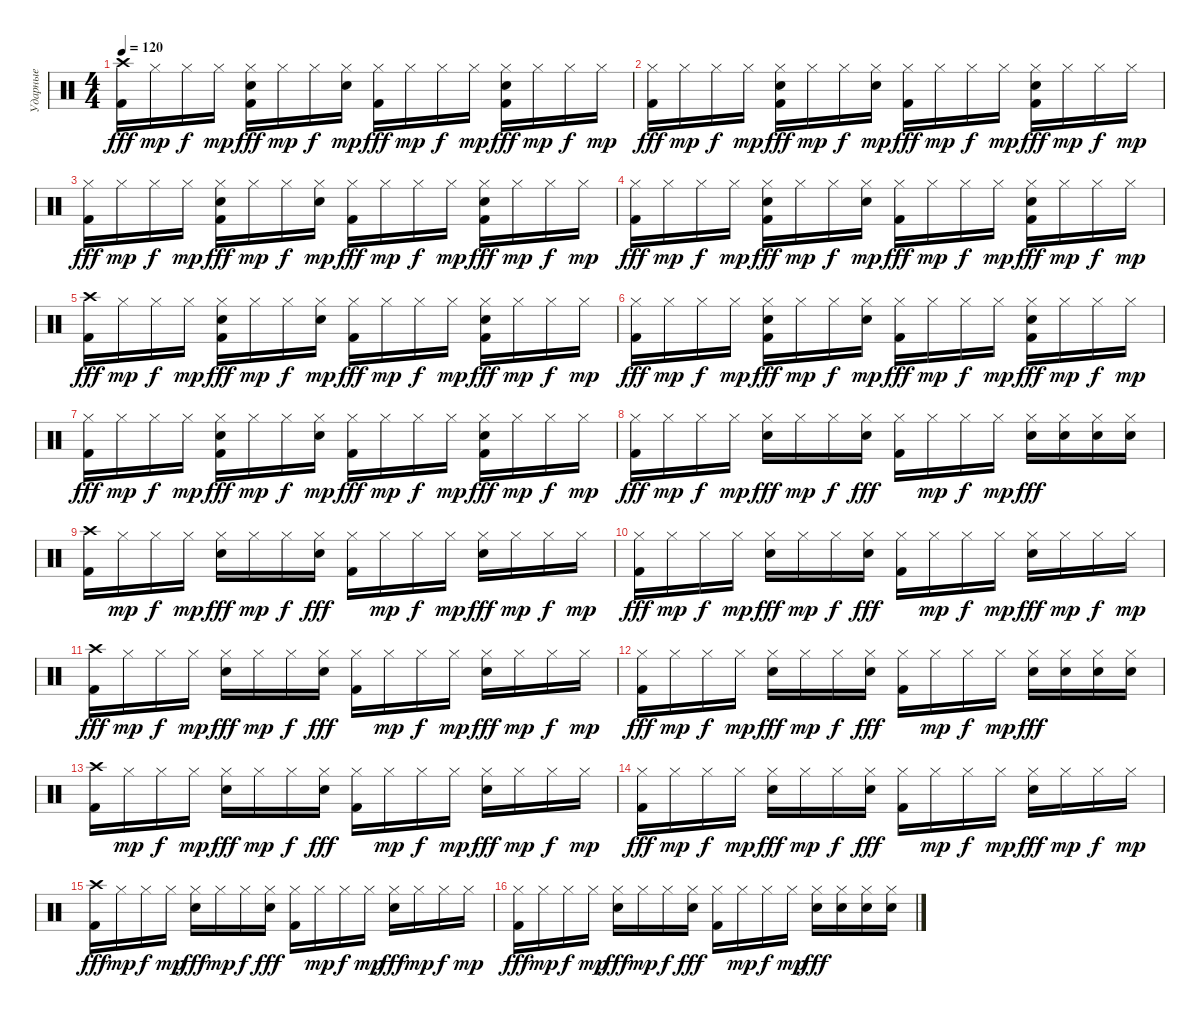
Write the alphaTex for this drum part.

\track ("Ударные" "Ударные") {instrument percussion}
\staff {score}
\articulation defaults
\ts (4 4)
\tempo 120
\clef neutral
\ks c
("Crash high (hit)" "Kick (hit) 2").16{dy fff} "Hi-Hat (closed)".16{dy mp} "Hi-Hat (closed)".16{dy f} "Hi-Hat (closed)".16{dy mp} ("Hi-Hat (closed)" "Snare (hit) 2" "Kick (hit) 2").16{dy fff} "Hi-Hat (closed)".16{dy mp} "Hi-Hat (closed)".16{dy f} ("Hi-Hat (closed)" "Snare (hit) 2").16{dy mp} ("Hi-Hat (closed)" "Kick (hit) 2").16{dy fff} "Hi-Hat (closed)".16{dy mp} "Hi-Hat (closed)".16{dy f} "Hi-Hat (closed)".16{dy mp} ("Hi-Hat (closed)" "Snare (hit) 2" "Kick (hit) 2").16{dy fff} "Hi-Hat (closed)".16{dy mp} "Hi-Hat (closed)".16{dy f} "Hi-Hat (closed)".16{dy mp} |
("Hi-Hat (closed)" "Kick (hit) 2").16{dy fff} "Hi-Hat (closed)".16{dy mp} "Hi-Hat (closed)".16{dy f} "Hi-Hat (closed)".16{dy mp} ("Hi-Hat (closed)" "Snare (hit) 2" "Kick (hit) 2").16{dy fff} "Hi-Hat (closed)".16{dy mp} "Hi-Hat (closed)".16{dy f} ("Hi-Hat (closed)" "Snare (hit) 2").16{dy mp} ("Hi-Hat (closed)" "Kick (hit) 2").16{dy fff} "Hi-Hat (closed)".16{dy mp} "Hi-Hat (closed)".16{dy f} "Hi-Hat (closed)".16{dy mp} ("Hi-Hat (closed)" "Snare (hit) 2" "Kick (hit) 2").16{dy fff} "Hi-Hat (closed)".16{dy mp} "Hi-Hat (closed)".16{dy f} "Hi-Hat (closed)".16{dy mp} |
("Hi-Hat (closed)" "Kick (hit) 2").16{dy fff} "Hi-Hat (closed)".16{dy mp} "Hi-Hat (closed)".16{dy f} "Hi-Hat (closed)".16{dy mp} ("Hi-Hat (closed)" "Snare (hit) 2" "Kick (hit) 2").16{dy fff} "Hi-Hat (closed)".16{dy mp} "Hi-Hat (closed)".16{dy f} ("Hi-Hat (closed)" "Snare (hit) 2").16{dy mp} ("Hi-Hat (closed)" "Kick (hit) 2").16{dy fff} "Hi-Hat (closed)".16{dy mp} "Hi-Hat (closed)".16{dy f} "Hi-Hat (closed)".16{dy mp} ("Hi-Hat (closed)" "Snare (hit) 2" "Kick (hit) 2").16{dy fff} "Hi-Hat (closed)".16{dy mp} "Hi-Hat (closed)".16{dy f} "Hi-Hat (closed)".16{dy mp} |
("Hi-Hat (closed)" "Kick (hit) 2").16{dy fff} "Hi-Hat (closed)".16{dy mp} "Hi-Hat (closed)".16{dy f} "Hi-Hat (closed)".16{dy mp} ("Hi-Hat (closed)" "Snare (hit) 2" "Kick (hit) 2").16{dy fff} "Hi-Hat (closed)".16{dy mp} "Hi-Hat (closed)".16{dy f} ("Hi-Hat (closed)" "Snare (hit) 2").16{dy mp} ("Hi-Hat (closed)" "Kick (hit) 2").16{dy fff} "Hi-Hat (closed)".16{dy mp} "Hi-Hat (closed)".16{dy f} "Hi-Hat (closed)".16{dy mp} ("Hi-Hat (closed)" "Snare (hit) 2" "Kick (hit) 2").16{dy fff} "Hi-Hat (closed)".16{dy mp} "Hi-Hat (closed)".16{dy f} "Hi-Hat (closed)".16{dy mp} |
("Crash high (hit)" "Kick (hit) 2").16{dy fff} "Hi-Hat (closed)".16{dy mp} "Hi-Hat (closed)".16{dy f} "Hi-Hat (closed)".16{dy mp} ("Hi-Hat (closed)" "Snare (hit) 2" "Kick (hit) 2").16{dy fff} "Hi-Hat (closed)".16{dy mp} "Hi-Hat (closed)".16{dy f} ("Hi-Hat (closed)" "Snare (hit) 2").16{dy mp} ("Hi-Hat (closed)" "Kick (hit) 2").16{dy fff} "Hi-Hat (closed)".16{dy mp} "Hi-Hat (closed)".16{dy f} "Hi-Hat (closed)".16{dy mp} ("Hi-Hat (closed)" "Snare (hit) 2" "Kick (hit) 2").16{dy fff} "Hi-Hat (closed)".16{dy mp} "Hi-Hat (closed)".16{dy f} "Hi-Hat (closed)".16{dy mp} |
("Hi-Hat (closed)" "Kick (hit) 2").16{dy fff} "Hi-Hat (closed)".16{dy mp} "Hi-Hat (closed)".16{dy f} "Hi-Hat (closed)".16{dy mp} ("Hi-Hat (closed)" "Snare (hit) 2" "Kick (hit) 2").16{dy fff} "Hi-Hat (closed)".16{dy mp} "Hi-Hat (closed)".16{dy f} ("Hi-Hat (closed)" "Snare (hit) 2").16{dy mp} ("Hi-Hat (closed)" "Kick (hit) 2").16{dy fff} "Hi-Hat (closed)".16{dy mp} "Hi-Hat (closed)".16{dy f} "Hi-Hat (closed)".16{dy mp} ("Hi-Hat (closed)" "Snare (hit) 2" "Kick (hit) 2").16{dy fff} "Hi-Hat (closed)".16{dy mp} "Hi-Hat (closed)".16{dy f} "Hi-Hat (closed)".16{dy mp} |
("Hi-Hat (closed)" "Kick (hit) 2").16{dy fff} "Hi-Hat (closed)".16{dy mp} "Hi-Hat (closed)".16{dy f} "Hi-Hat (closed)".16{dy mp} ("Hi-Hat (closed)" "Snare (hit) 2" "Kick (hit) 2").16{dy fff} "Hi-Hat (closed)".16{dy mp} "Hi-Hat (closed)".16{dy f} ("Hi-Hat (closed)" "Snare (hit) 2").16{dy mp} ("Hi-Hat (closed)" "Kick (hit) 2").16{dy fff} "Hi-Hat (closed)".16{dy mp} "Hi-Hat (closed)".16{dy f} "Hi-Hat (closed)".16{dy mp} ("Hi-Hat (closed)" "Snare (hit) 2" "Kick (hit) 2").16{dy fff} "Hi-Hat (closed)".16{dy mp} "Hi-Hat (closed)".16{dy f} "Hi-Hat (closed)".16{dy mp} |
("Hi-Hat (closed)" "Kick (hit) 2").16{dy fff} "Hi-Hat (closed)".16{dy mp} "Hi-Hat (closed)".16{dy f} "Hi-Hat (closed)".16{dy mp} ("Hi-Hat (closed)" "Electric Snare (hit)").16{dy fff} "Hi-Hat (closed)".16{dy mp} "Hi-Hat (closed)".16{dy f} ("Hi-Hat (closed)" "Electric Snare (hit)").16{dy fff} ("Hi-Hat (closed)" "Kick (hit) 2").16 "Hi-Hat (closed)".16{dy mp} "Hi-Hat (closed)".16{dy f} "Hi-Hat (closed)".16{dy mp} ("Hi-Hat (closed)" "Electric Snare (hit)").16{dy fff} ("Hi-Hat (closed)" "Electric Snare (hit)").16 ("Hi-Hat (closed)" "Electric Snare (hit)").16 ("Hi-Hat (closed)" "Electric Snare (hit)").16 |
("Crash high (hit)" "Kick (hit) 2").16 "Hi-Hat (closed)".16{dy mp} "Hi-Hat (closed)".16{dy f} "Hi-Hat (closed)".16{dy mp} ("Hi-Hat (closed)" "Electric Snare (hit)").16{dy fff} "Hi-Hat (closed)".16{dy mp} "Hi-Hat (closed)".16{dy f} ("Hi-Hat (closed)" "Electric Snare (hit)").16{dy fff} ("Hi-Hat (closed)" "Kick (hit) 2").16 "Hi-Hat (closed)".16{dy mp} "Hi-Hat (closed)".16{dy f} "Hi-Hat (closed)".16{dy mp} ("Hi-Hat (closed)" "Electric Snare (hit)").16{dy fff} "Hi-Hat (closed)".16{dy mp} "Hi-Hat (closed)".16{dy f} "Hi-Hat (closed)".16{dy mp} |
("Hi-Hat (closed)" "Kick (hit) 2").16{dy fff} "Hi-Hat (closed)".16{dy mp} "Hi-Hat (closed)".16{dy f} "Hi-Hat (closed)".16{dy mp} ("Hi-Hat (closed)" "Electric Snare (hit)").16{dy fff} "Hi-Hat (closed)".16{dy mp} "Hi-Hat (closed)".16{dy f} ("Hi-Hat (closed)" "Electric Snare (hit)").16{dy fff} ("Hi-Hat (closed)" "Kick (hit) 2").16 "Hi-Hat (closed)".16{dy mp} "Hi-Hat (closed)".16{dy f} "Hi-Hat (closed)".16{dy mp} ("Hi-Hat (closed)" "Electric Snare (hit)").16{dy fff} "Hi-Hat (closed)".16{dy mp} "Hi-Hat (closed)".16{dy f} "Hi-Hat (closed)".16{dy mp} |
("Crash high (hit)" "Kick (hit) 2").16{dy fff} "Hi-Hat (closed)".16{dy mp} "Hi-Hat (closed)".16{dy f} "Hi-Hat (closed)".16{dy mp} ("Hi-Hat (closed)" "Electric Snare (hit)").16{dy fff} "Hi-Hat (closed)".16{dy mp} "Hi-Hat (closed)".16{dy f} ("Hi-Hat (closed)" "Electric Snare (hit)").16{dy fff} ("Hi-Hat (closed)" "Kick (hit) 2").16 "Hi-Hat (closed)".16{dy mp} "Hi-Hat (closed)".16{dy f} "Hi-Hat (closed)".16{dy mp} ("Hi-Hat (closed)" "Electric Snare (hit)").16{dy fff} "Hi-Hat (closed)".16{dy mp} "Hi-Hat (closed)".16{dy f} "Hi-Hat (closed)".16{dy mp} |
("Hi-Hat (closed)" "Kick (hit) 2").16{dy fff} "Hi-Hat (closed)".16{dy mp} "Hi-Hat (closed)".16{dy f} "Hi-Hat (closed)".16{dy mp} ("Hi-Hat (closed)" "Electric Snare (hit)").16{dy fff} "Hi-Hat (closed)".16{dy mp} "Hi-Hat (closed)".16{dy f} ("Hi-Hat (closed)" "Electric Snare (hit)").16{dy fff} ("Hi-Hat (closed)" "Kick (hit) 2").16 "Hi-Hat (closed)".16{dy mp} "Hi-Hat (closed)".16{dy f} "Hi-Hat (closed)".16{dy mp} ("Hi-Hat (closed)" "Electric Snare (hit)").16{dy fff} ("Hi-Hat (closed)" "Electric Snare (hit)").16 ("Hi-Hat (closed)" "Electric Snare (hit)").16 ("Hi-Hat (closed)" "Electric Snare (hit)").16 |
("Crash high (hit)" "Kick (hit) 2").16 "Hi-Hat (closed)".16{dy mp} "Hi-Hat (closed)".16{dy f} "Hi-Hat (closed)".16{dy mp} ("Hi-Hat (closed)" "Electric Snare (hit)").16{dy fff} "Hi-Hat (closed)".16{dy mp} "Hi-Hat (closed)".16{dy f} ("Hi-Hat (closed)" "Electric Snare (hit)").16{dy fff} ("Hi-Hat (closed)" "Kick (hit) 2").16 "Hi-Hat (closed)".16{dy mp} "Hi-Hat (closed)".16{dy f} "Hi-Hat (closed)".16{dy mp} ("Hi-Hat (closed)" "Electric Snare (hit)").16{dy fff} "Hi-Hat (closed)".16{dy mp} "Hi-Hat (closed)".16{dy f} "Hi-Hat (closed)".16{dy mp} |
("Hi-Hat (closed)" "Kick (hit) 2").16{dy fff} "Hi-Hat (closed)".16{dy mp} "Hi-Hat (closed)".16{dy f} "Hi-Hat (closed)".16{dy mp} ("Hi-Hat (closed)" "Electric Snare (hit)").16{dy fff} "Hi-Hat (closed)".16{dy mp} "Hi-Hat (closed)".16{dy f} ("Hi-Hat (closed)" "Electric Snare (hit)").16{dy fff} ("Hi-Hat (closed)" "Kick (hit) 2").16 "Hi-Hat (closed)".16{dy mp} "Hi-Hat (closed)".16{dy f} "Hi-Hat (closed)".16{dy mp} ("Hi-Hat (closed)" "Electric Snare (hit)").16{dy fff} "Hi-Hat (closed)".16{dy mp} "Hi-Hat (closed)".16{dy f} "Hi-Hat (closed)".16{dy mp} |
("Crash high (hit)" "Kick (hit) 2").16{dy fff} "Hi-Hat (closed)".16{dy mp} "Hi-Hat (closed)".16{dy f} "Hi-Hat (closed)".16{dy mp} ("Hi-Hat (closed)" "Electric Snare (hit)").16{dy fff} "Hi-Hat (closed)".16{dy mp} "Hi-Hat (closed)".16{dy f} ("Hi-Hat (closed)" "Electric Snare (hit)").16{dy fff} ("Hi-Hat (closed)" "Kick (hit) 2").16 "Hi-Hat (closed)".16{dy mp} "Hi-Hat (closed)".16{dy f} "Hi-Hat (closed)".16{dy mp} ("Hi-Hat (closed)" "Electric Snare (hit)").16{dy fff} "Hi-Hat (closed)".16{dy mp} "Hi-Hat (closed)".16{dy f} "Hi-Hat (closed)".16{dy mp} |
("Hi-Hat (closed)" "Kick (hit) 2").16{dy fff} "Hi-Hat (closed)".16{dy mp} "Hi-Hat (closed)".16{dy f} "Hi-Hat (closed)".16{dy mp} ("Hi-Hat (closed)" "Electric Snare (hit)").16{dy fff} "Hi-Hat (closed)".16{dy mp} "Hi-Hat (closed)".16{dy f} ("Hi-Hat (closed)" "Electric Snare (hit)").16{dy fff} ("Hi-Hat (closed)" "Kick (hit) 2").16 "Hi-Hat (closed)".16{dy mp} "Hi-Hat (closed)".16{dy f} "Hi-Hat (closed)".16{dy mp} ("Hi-Hat (closed)" "Electric Snare (hit)").16{dy fff} ("Hi-Hat (closed)" "Electric Snare (hit)").16 ("Hi-Hat (closed)" "Electric Snare (hit)").16 ("Hi-Hat (closed)" "Electric Snare (hit)").16
